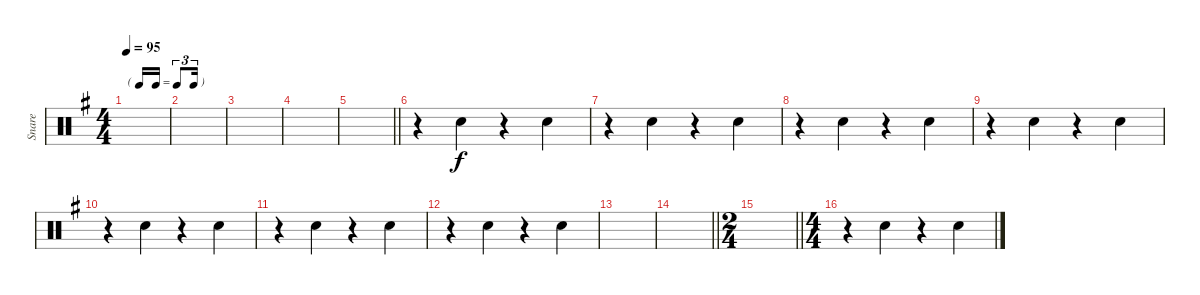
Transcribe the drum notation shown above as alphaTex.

\track ("Snare" "Snare") {instrument percussion}
\staff {score}
\articulation defaults
\ts (4 4)
\tf triplet16th
\tempo 95
\clef neutral
\ks eminor
|
|
|
|
\barLineRight lightlight
|
r.4 "Snare (hit) 2".4 r.4 "Snare (hit) 2".4 |
r.4 "Snare (hit) 2".4 r.4 "Snare (hit) 2".4 |
r.4 "Snare (hit) 2".4 r.4 "Snare (hit) 2".4 |
r.4 "Snare (hit) 2".4 r.4 "Snare (hit) 2".4 |
r.4 "Snare (hit) 2".4 r.4 "Snare (hit) 2".4 |
r.4 "Snare (hit) 2".4 r.4 "Snare (hit) 2".4 |
r.4 "Snare (hit) 2".4 r.4 "Snare (hit) 2".4 |
|
\barLineRight lightlight
|
\ts (2 4)
\barLineRight lightlight
|
\ts (4 4)
r.4 "Snare (hit) 2".4 r.4 "Snare (hit) 2".4
